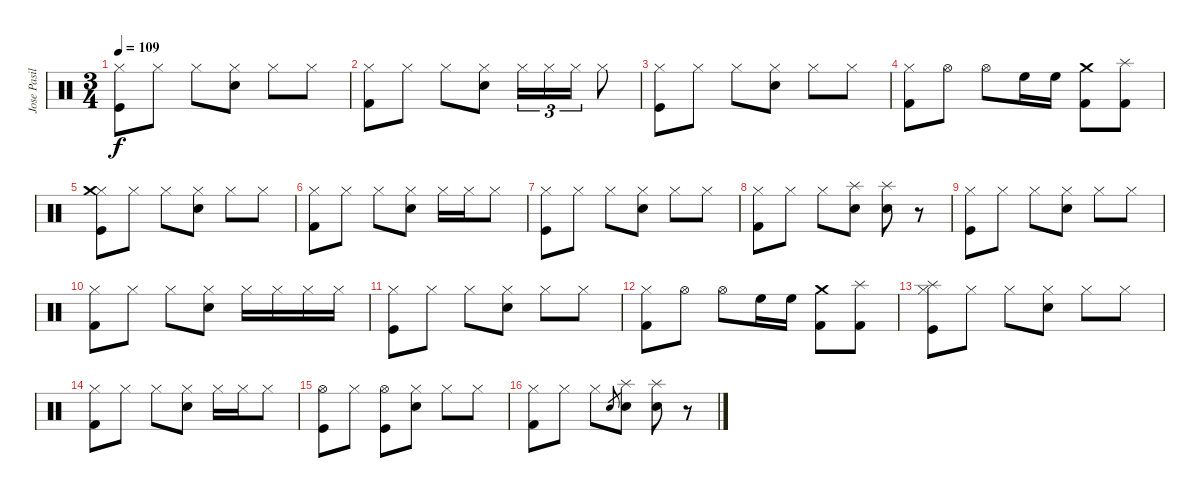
\track ("Jose Pasillas" "Jose Pasil") {instrument percussion}
\staff {score}
\articulation defaults
\ts (3 4)
\tempo 109
\clef neutral
\ks c
("Hi-Hat (closed)" "Kick (hit)").8{dy f} "Hi-Hat (closed)".8 "Hi-Hat (closed)".8 ("Hi-Hat (closed)" "Electric Snare (hit)").8 "Hi-Hat (closed)".8 "Hi-Hat (closed)".8 |
("Hi-Hat (closed)" "Kick (hit) 2").8 "Hi-Hat (closed)".8 "Hi-Hat (closed)".8 ("Hi-Hat (closed)" "Electric Snare (hit)").8 "Hi-Hat (closed)".16{tu (3 2)} "Hi-Hat (closed)".16{tu (3 2)} "Hi-Hat (closed)".16{tu (3 2)} "Hi-Hat (closed)".8 |
("Hi-Hat (closed)" "Kick (hit)").8 "Hi-Hat (closed)".8 "Hi-Hat (closed)".8 ("Hi-Hat (closed)" "Electric Snare (hit)").8 "Hi-Hat (closed)".8 "Hi-Hat (closed)".8 |
("Hi-Hat (closed)" "Kick (hit) 2").8 "Hi-Hat (open)".8 "Hi-Hat (open)".8 "High Floor Tom (hit)".16 "High Floor Tom (hit)".16 ("Crash medium (hit)" "Kick (hit) 2").8 ("Splash (hit)" "Kick (hit) 2").8 |
("Hi-Hat (closed)" "Crash medium (hit)" "Kick (hit)").8 "Hi-Hat (closed)".8 "Hi-Hat (closed)".8 ("Hi-Hat (closed)" "Electric Snare (hit)").8 "Hi-Hat (closed)".8 "Hi-Hat (closed)".8 |
("Hi-Hat (closed)" "Kick (hit) 2").8 "Hi-Hat (closed)".8 "Hi-Hat (closed)".8 ("Hi-Hat (closed)" "Electric Snare (hit)").8 "Hi-Hat (closed)".16 "Hi-Hat (closed)".16 "Hi-Hat (closed)".8 |
("Hi-Hat (closed)" "Kick (hit)").8 "Hi-Hat (closed)".8 "Hi-Hat (closed)".8 ("Hi-Hat (closed)" "Electric Snare (hit)").8 "Hi-Hat (closed)".8 "Hi-Hat (closed)".8 |
("Hi-Hat (closed)" "Kick (hit) 2").8 "Hi-Hat (closed)".8 "Hi-Hat (closed)".8 ("Splash (hit)" "Electric Snare (hit)").8 ("Splash (hit)" "Electric Snare (hit)").8 r.8 |
("Hi-Hat (closed)" "Kick (hit)").8 "Hi-Hat (closed)".8 "Hi-Hat (closed)".8 ("Hi-Hat (closed)" "Electric Snare (hit)").8 "Hi-Hat (closed)".8 "Hi-Hat (closed)".8 |
("Hi-Hat (closed)" "Kick (hit) 2").8 "Hi-Hat (closed)".8 "Hi-Hat (closed)".8 ("Hi-Hat (closed)" "Electric Snare (hit)").8 "Hi-Hat (closed)".16 "Hi-Hat (closed)".16 "Hi-Hat (closed)".16 "Hi-Hat (closed)".16 |
("Hi-Hat (closed)" "Kick (hit)").8 "Hi-Hat (closed)".8 "Hi-Hat (closed)".8 ("Hi-Hat (closed)" "Electric Snare (hit)").8 "Hi-Hat (closed)".8 "Hi-Hat (closed)".8 |
("Hi-Hat (closed)" "Kick (hit) 2").8 "Hi-Hat (open)".8 "Hi-Hat (open)".8 "High Floor Tom (hit)".16 "High Floor Tom (hit)".16 ("Crash medium (hit)" "Kick (hit) 2").8 ("Splash (hit)" "Kick (hit) 2").8 |
("Hi-Hat (closed)" "Splash (hit)" "Kick (hit)").8 "Hi-Hat (closed)".8 "Hi-Hat (closed)".8 ("Hi-Hat (closed)" "Electric Snare (hit)").8 "Hi-Hat (closed)".8 "Hi-Hat (closed)".8 |
("Hi-Hat (closed)" "Kick (hit) 2").8 "Hi-Hat (closed)".8 "Hi-Hat (closed)".8 ("Hi-Hat (closed)" "Electric Snare (hit)").8 "Hi-Hat (closed)".16 "Hi-Hat (closed)".16 "Hi-Hat (closed)".8 |
("Hi-Hat (open)" "Kick (hit)").8 "Hi-Hat (closed)".8 ("Hi-Hat (open)" "Kick (hit)").8 ("Hi-Hat (closed)" "Electric Snare (hit)").8 "Hi-Hat (closed)".8 "Hi-Hat (closed)".8 |
("Hi-Hat (closed)" "Kick (hit) 2").8 "Hi-Hat (closed)".8 "Hi-Hat (closed)".8 "Electric Snare (hit)".8{gr} ("Splash (hit)" "Electric Snare (hit)").8 ("Splash (hit)" "Electric Snare (hit)").8 r.8
